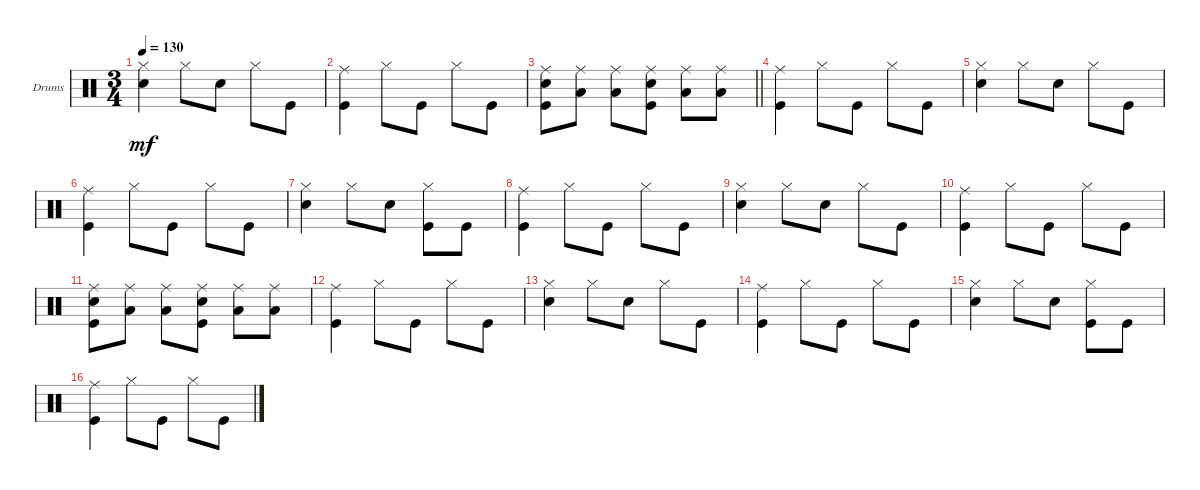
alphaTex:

\defaultSystemsLayout 4
\bracketExtendMode groupsimilarinstruments
\firstSystemTrackNameOrientation horizontal
\otherSystemsTrackNameOrientation horizontal
\chordDiagramsInScore
\track ("Drumkit" "Drums") {instrument percussion}
\staff {score}
\articulation defaults
\ts (3 4)
\tempo 130
\clef neutral
\ks c
("Hi-Hat (closed)" "Snare (hit) 2").4{dy mf} "Hi-Hat (closed)".8 "Snare (hit) 2".8 "Hi-Hat (closed)".8 "Kick (hit)".8 |
("Kick (hit)" "Ride (middle)").4 "Hi-Hat (closed)".8 "Kick (hit)".8 "Hi-Hat (closed)".8 "Kick (hit)".8 |
\barLineRight lightlight
("Snare (hit) 2" "Kick (hit)" "Ride (middle)").8 ("Ride (middle)" "Low Tom (hit)").8 ("Ride (middle)" "Low Tom (hit)").8 ("Kick (hit)" "Snare (hit) 2" "Ride (middle)").8 ("Ride (middle)" "Low Tom (hit)").8 ("Ride (middle)" "Low Tom (hit)").8 |
("Kick (hit)" "Ride (middle)").4 "Hi-Hat (closed)".8 "Kick (hit)".8 "Hi-Hat (closed)".8 "Kick (hit)".8 |
("Hi-Hat (closed)" "Snare (hit) 2").4 "Hi-Hat (closed)".8 "Snare (hit) 2".8 "Hi-Hat (closed)".8 "Kick (hit)".8 |
("Kick (hit)" "Ride (middle)").4 "Hi-Hat (closed)".8 "Kick (hit)".8 "Hi-Hat (closed)".8 "Kick (hit)".8 |
("Hi-Hat (closed)" "Snare (hit) 2").4 "Hi-Hat (closed)".8 "Snare (hit) 2".8 ("Kick (hit)" "Hi-Hat (closed)").8 "Kick (hit)".8 |
("Kick (hit)" "Ride (middle)").4 "Hi-Hat (closed)".8 "Kick (hit)".8 "Hi-Hat (closed)".8 "Kick (hit)".8 |
("Hi-Hat (closed)" "Snare (hit) 2").4 "Hi-Hat (closed)".8 "Snare (hit) 2".8 "Hi-Hat (closed)".8 "Kick (hit)".8 |
("Kick (hit)" "Ride (middle)").4 "Hi-Hat (closed)".8 "Kick (hit)".8 "Hi-Hat (closed)".8 "Kick (hit)".8 |
("Snare (hit) 2" "Kick (hit)" "Ride (middle)").8 ("Ride (middle)" "Low Tom (hit)").8 ("Ride (middle)" "Low Tom (hit)").8 ("Kick (hit)" "Snare (hit) 2" "Ride (middle)").8 ("Ride (middle)" "Low Tom (hit)").8 ("Ride (middle)" "Low Tom (hit)").8 |
("Kick (hit)" "Ride (middle)").4 "Hi-Hat (closed)".8 "Kick (hit)".8 "Hi-Hat (closed)".8 "Kick (hit)".8 |
("Hi-Hat (closed)" "Snare (hit) 2").4 "Hi-Hat (closed)".8 "Snare (hit) 2".8 "Hi-Hat (closed)".8 "Kick (hit)".8 |
("Kick (hit)" "Ride (middle)").4 "Hi-Hat (closed)".8 "Kick (hit)".8 "Hi-Hat (closed)".8 "Kick (hit)".8 |
("Hi-Hat (closed)" "Snare (hit) 2").4 "Hi-Hat (closed)".8 "Snare (hit) 2".8 ("Kick (hit)" "Hi-Hat (closed)").8 "Kick (hit)".8 |
("Kick (hit)" "Ride (middle)").4 "Hi-Hat (closed)".8 "Kick (hit)".8 "Hi-Hat (closed)".8 "Kick (hit)".8
